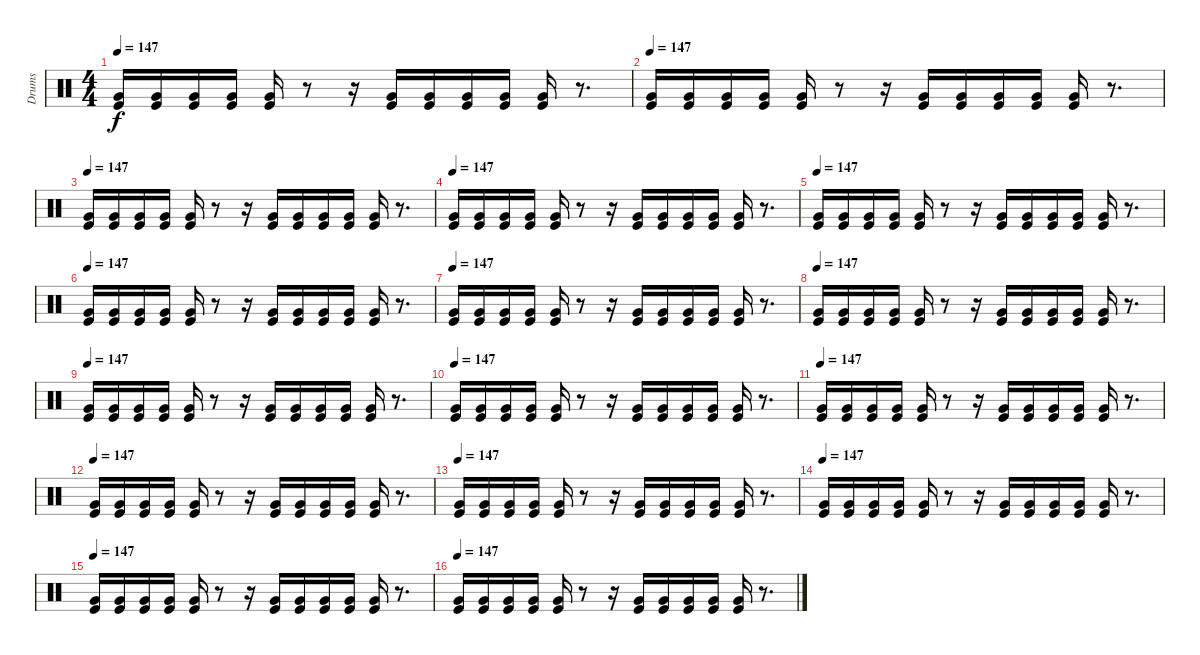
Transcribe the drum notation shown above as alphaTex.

\track ("Drums" "Drums") {instrument percussion}
\staff {score}
\articulation defaults
\ts (4 4)
\tempo 147
\clef neutral
\ks c
("Very Low Tom (hit)" "Kick (hit)").16{dy f} ("Very Low Tom (hit)" "Kick (hit)").16 ("Very Low Tom (hit)" "Kick (hit)").16 ("Very Low Tom (hit)" "Kick (hit)").16 ("Very Low Tom (hit)" "Kick (hit)").16 r.8 r.16 ("Very Low Tom (hit)" "Kick (hit)").16 ("Very Low Tom (hit)" "Kick (hit)").16 ("Very Low Tom (hit)" "Kick (hit)").16 ("Very Low Tom (hit)" "Kick (hit)").16 ("Very Low Tom (hit)" "Kick (hit)").16 r.8{d} |
\tempo 147
("Very Low Tom (hit)" "Kick (hit)").16 ("Very Low Tom (hit)" "Kick (hit)").16 ("Very Low Tom (hit)" "Kick (hit)").16 ("Very Low Tom (hit)" "Kick (hit)").16 ("Very Low Tom (hit)" "Kick (hit)").16 r.8 r.16 ("Very Low Tom (hit)" "Kick (hit)").16 ("Very Low Tom (hit)" "Kick (hit)").16 ("Very Low Tom (hit)" "Kick (hit)").16 ("Very Low Tom (hit)" "Kick (hit)").16 ("Very Low Tom (hit)" "Kick (hit)").16 r.8{d} |
\tempo 147
("Very Low Tom (hit)" "Kick (hit)").16 ("Very Low Tom (hit)" "Kick (hit)").16 ("Very Low Tom (hit)" "Kick (hit)").16 ("Very Low Tom (hit)" "Kick (hit)").16 ("Very Low Tom (hit)" "Kick (hit)").16 r.8 r.16 ("Very Low Tom (hit)" "Kick (hit)").16 ("Very Low Tom (hit)" "Kick (hit)").16 ("Very Low Tom (hit)" "Kick (hit)").16 ("Very Low Tom (hit)" "Kick (hit)").16 ("Very Low Tom (hit)" "Kick (hit)").16 r.8{d} |
\tempo 147
("Very Low Tom (hit)" "Kick (hit)").16 ("Very Low Tom (hit)" "Kick (hit)").16 ("Very Low Tom (hit)" "Kick (hit)").16 ("Very Low Tom (hit)" "Kick (hit)").16 ("Very Low Tom (hit)" "Kick (hit)").16 r.8 r.16 ("Very Low Tom (hit)" "Kick (hit)").16 ("Very Low Tom (hit)" "Kick (hit)").16 ("Very Low Tom (hit)" "Kick (hit)").16 ("Very Low Tom (hit)" "Kick (hit)").16 ("Very Low Tom (hit)" "Kick (hit)").16 r.8{d} |
\tempo 147
("Very Low Tom (hit)" "Kick (hit)").16 ("Very Low Tom (hit)" "Kick (hit)").16 ("Very Low Tom (hit)" "Kick (hit)").16 ("Very Low Tom (hit)" "Kick (hit)").16 ("Very Low Tom (hit)" "Kick (hit)").16 r.8 r.16 ("Very Low Tom (hit)" "Kick (hit)").16 ("Very Low Tom (hit)" "Kick (hit)").16 ("Very Low Tom (hit)" "Kick (hit)").16 ("Very Low Tom (hit)" "Kick (hit)").16 ("Very Low Tom (hit)" "Kick (hit)").16 r.8{d} |
\tempo 147
("Very Low Tom (hit)" "Kick (hit)").16 ("Very Low Tom (hit)" "Kick (hit)").16 ("Very Low Tom (hit)" "Kick (hit)").16 ("Very Low Tom (hit)" "Kick (hit)").16 ("Very Low Tom (hit)" "Kick (hit)").16 r.8 r.16 ("Very Low Tom (hit)" "Kick (hit)").16 ("Very Low Tom (hit)" "Kick (hit)").16 ("Very Low Tom (hit)" "Kick (hit)").16 ("Very Low Tom (hit)" "Kick (hit)").16 ("Very Low Tom (hit)" "Kick (hit)").16 r.8{d} |
\tempo 147
("Very Low Tom (hit)" "Kick (hit)").16 ("Very Low Tom (hit)" "Kick (hit)").16 ("Very Low Tom (hit)" "Kick (hit)").16 ("Very Low Tom (hit)" "Kick (hit)").16 ("Very Low Tom (hit)" "Kick (hit)").16 r.8 r.16 ("Very Low Tom (hit)" "Kick (hit)").16 ("Very Low Tom (hit)" "Kick (hit)").16 ("Very Low Tom (hit)" "Kick (hit)").16 ("Very Low Tom (hit)" "Kick (hit)").16 ("Very Low Tom (hit)" "Kick (hit)").16 r.8{d} |
\tempo 147
("Very Low Tom (hit)" "Kick (hit)").16 ("Very Low Tom (hit)" "Kick (hit)").16 ("Very Low Tom (hit)" "Kick (hit)").16 ("Very Low Tom (hit)" "Kick (hit)").16 ("Very Low Tom (hit)" "Kick (hit)").16 r.8 r.16 ("Very Low Tom (hit)" "Kick (hit)").16 ("Very Low Tom (hit)" "Kick (hit)").16 ("Very Low Tom (hit)" "Kick (hit)").16 ("Very Low Tom (hit)" "Kick (hit)").16 ("Very Low Tom (hit)" "Kick (hit)").16 r.8{d} |
\tempo 147
("Very Low Tom (hit)" "Kick (hit)").16 ("Very Low Tom (hit)" "Kick (hit)").16 ("Very Low Tom (hit)" "Kick (hit)").16 ("Very Low Tom (hit)" "Kick (hit)").16 ("Very Low Tom (hit)" "Kick (hit)").16 r.8 r.16 ("Very Low Tom (hit)" "Kick (hit)").16 ("Very Low Tom (hit)" "Kick (hit)").16 ("Very Low Tom (hit)" "Kick (hit)").16 ("Very Low Tom (hit)" "Kick (hit)").16 ("Very Low Tom (hit)" "Kick (hit)").16 r.8{d} |
\tempo 147
("Very Low Tom (hit)" "Kick (hit)").16 ("Very Low Tom (hit)" "Kick (hit)").16 ("Very Low Tom (hit)" "Kick (hit)").16 ("Very Low Tom (hit)" "Kick (hit)").16 ("Very Low Tom (hit)" "Kick (hit)").16 r.8 r.16 ("Very Low Tom (hit)" "Kick (hit)").16 ("Very Low Tom (hit)" "Kick (hit)").16 ("Very Low Tom (hit)" "Kick (hit)").16 ("Very Low Tom (hit)" "Kick (hit)").16 ("Very Low Tom (hit)" "Kick (hit)").16 r.8{d} |
\tempo 147
("Very Low Tom (hit)" "Kick (hit)").16 ("Very Low Tom (hit)" "Kick (hit)").16 ("Very Low Tom (hit)" "Kick (hit)").16 ("Very Low Tom (hit)" "Kick (hit)").16 ("Very Low Tom (hit)" "Kick (hit)").16 r.8 r.16 ("Very Low Tom (hit)" "Kick (hit)").16 ("Very Low Tom (hit)" "Kick (hit)").16 ("Very Low Tom (hit)" "Kick (hit)").16 ("Very Low Tom (hit)" "Kick (hit)").16 ("Very Low Tom (hit)" "Kick (hit)").16 r.8{d} |
\tempo 147
("Very Low Tom (hit)" "Kick (hit)").16 ("Very Low Tom (hit)" "Kick (hit)").16 ("Very Low Tom (hit)" "Kick (hit)").16 ("Very Low Tom (hit)" "Kick (hit)").16 ("Very Low Tom (hit)" "Kick (hit)").16 r.8 r.16 ("Very Low Tom (hit)" "Kick (hit)").16 ("Very Low Tom (hit)" "Kick (hit)").16 ("Very Low Tom (hit)" "Kick (hit)").16 ("Very Low Tom (hit)" "Kick (hit)").16 ("Very Low Tom (hit)" "Kick (hit)").16 r.8{d} |
\tempo 147
("Very Low Tom (hit)" "Kick (hit)").16 ("Very Low Tom (hit)" "Kick (hit)").16 ("Very Low Tom (hit)" "Kick (hit)").16 ("Very Low Tom (hit)" "Kick (hit)").16 ("Very Low Tom (hit)" "Kick (hit)").16 r.8 r.16 ("Very Low Tom (hit)" "Kick (hit)").16 ("Very Low Tom (hit)" "Kick (hit)").16 ("Very Low Tom (hit)" "Kick (hit)").16 ("Very Low Tom (hit)" "Kick (hit)").16 ("Very Low Tom (hit)" "Kick (hit)").16 r.8{d} |
\tempo 147
("Very Low Tom (hit)" "Kick (hit)").16 ("Very Low Tom (hit)" "Kick (hit)").16 ("Very Low Tom (hit)" "Kick (hit)").16 ("Very Low Tom (hit)" "Kick (hit)").16 ("Very Low Tom (hit)" "Kick (hit)").16 r.8 r.16 ("Very Low Tom (hit)" "Kick (hit)").16 ("Very Low Tom (hit)" "Kick (hit)").16 ("Very Low Tom (hit)" "Kick (hit)").16 ("Very Low Tom (hit)" "Kick (hit)").16 ("Very Low Tom (hit)" "Kick (hit)").16 r.8{d} |
\tempo 147
("Very Low Tom (hit)" "Kick (hit)").16 ("Very Low Tom (hit)" "Kick (hit)").16 ("Very Low Tom (hit)" "Kick (hit)").16 ("Very Low Tom (hit)" "Kick (hit)").16 ("Very Low Tom (hit)" "Kick (hit)").16 r.8 r.16 ("Very Low Tom (hit)" "Kick (hit)").16 ("Very Low Tom (hit)" "Kick (hit)").16 ("Very Low Tom (hit)" "Kick (hit)").16 ("Very Low Tom (hit)" "Kick (hit)").16 ("Very Low Tom (hit)" "Kick (hit)").16 r.8{d} |
\tempo 147
("Very Low Tom (hit)" "Kick (hit)").16 ("Very Low Tom (hit)" "Kick (hit)").16 ("Very Low Tom (hit)" "Kick (hit)").16 ("Very Low Tom (hit)" "Kick (hit)").16 ("Very Low Tom (hit)" "Kick (hit)").16 r.8 r.16 ("Very Low Tom (hit)" "Kick (hit)").16 ("Very Low Tom (hit)" "Kick (hit)").16 ("Very Low Tom (hit)" "Kick (hit)").16 ("Very Low Tom (hit)" "Kick (hit)").16 ("Very Low Tom (hit)" "Kick (hit)").16 r.8{d}
